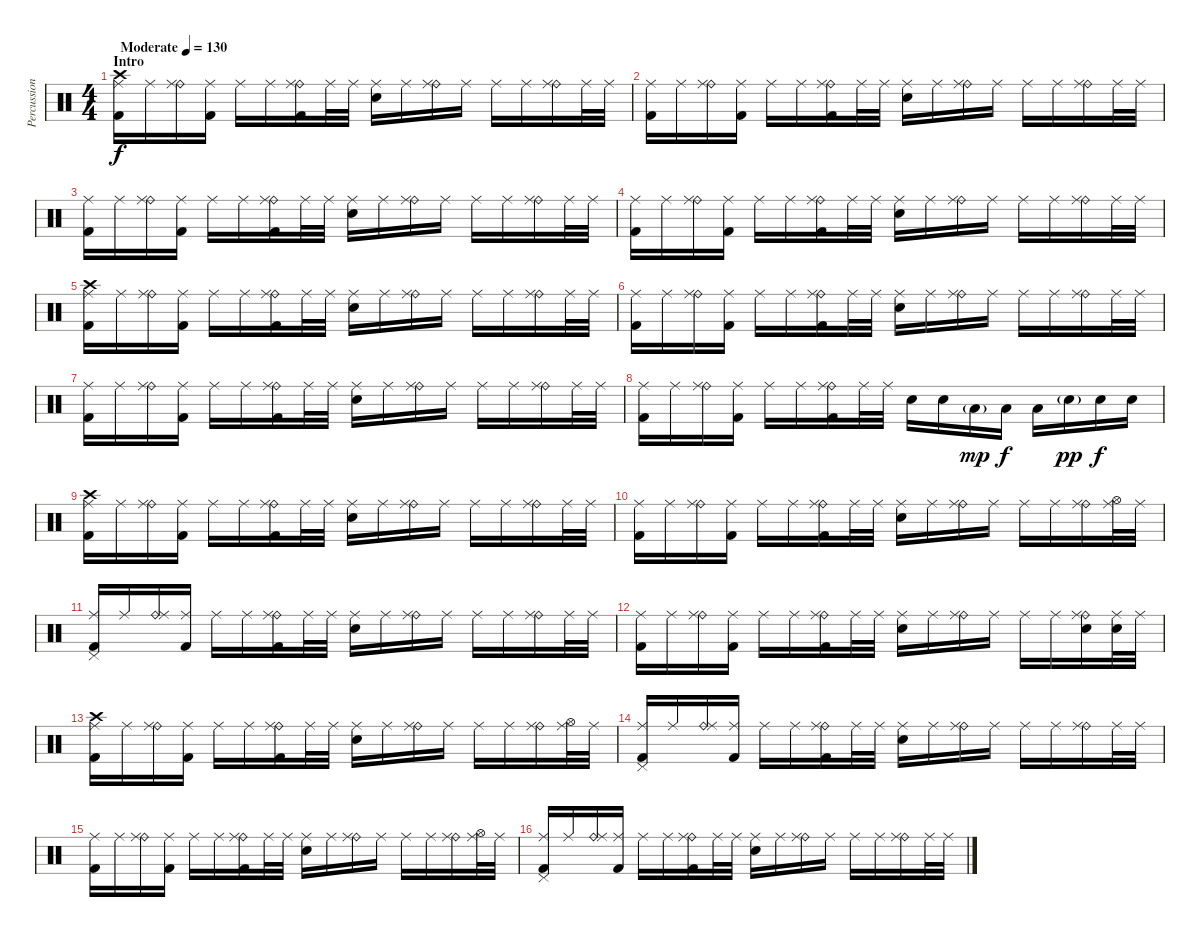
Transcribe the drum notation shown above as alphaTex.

\track ("Percussions" "Percussion") {instrument percussion}
\staff {score}
\articulation defaults
\ts (4 4)
\section ("" "Intro")
\tempo (130 "Moderate")
\clef neutral
\ks c
("Crash high (hit)" "Ride (middle)" "Kick (hit) 2").16{dy f} "Ride (middle)".16 ("Ride (bell)" "Ride (middle)").16 ("Ride (middle)" "Kick (hit) 2").16 "Ride (middle)".16 "Ride (middle)".16 ("Ride (bell)" "Ride (middle)" "Kick (hit) 2").16 "Ride (middle)".32 "Ride (middle)".32 ("Ride (middle)" "Electric Snare (hit)").16 "Ride (middle)".16 ("Ride (bell)" "Ride (middle)").16 "Ride (middle)".16 "Ride (middle)".16 "Ride (middle)".16 ("Ride (bell)" "Ride (middle)").16 "Ride (middle)".32 "Ride (middle)".32 |
("Ride (middle)" "Kick (hit) 2").16 "Ride (middle)".16 ("Ride (bell)" "Ride (middle)").16 ("Ride (middle)" "Kick (hit) 2").16 "Ride (middle)".16 "Ride (middle)".16 ("Ride (bell)" "Ride (middle)" "Kick (hit) 2").16 "Ride (middle)".32 "Ride (middle)".32 ("Ride (middle)" "Electric Snare (hit)").16 "Ride (middle)".16 ("Ride (bell)" "Ride (middle)").16 "Ride (middle)".16 "Ride (middle)".16 "Ride (middle)".16 ("Ride (bell)" "Ride (middle)").16 "Ride (middle)".32 "Ride (middle)".32 |
("Ride (middle)" "Kick (hit) 2").16 "Ride (middle)".16 ("Ride (bell)" "Ride (middle)").16 ("Ride (middle)" "Kick (hit) 2").16 "Ride (middle)".16 "Ride (middle)".16 ("Ride (bell)" "Ride (middle)" "Kick (hit) 2").16 "Ride (middle)".32 "Ride (middle)".32 ("Ride (middle)" "Electric Snare (hit)").16 "Ride (middle)".16 ("Ride (bell)" "Ride (middle)").16 "Ride (middle)".16 "Ride (middle)".16 "Ride (middle)".16 ("Ride (bell)" "Ride (middle)").16 "Ride (middle)".32 "Ride (middle)".32 |
("Ride (middle)" "Kick (hit) 2").16 "Ride (middle)".16 ("Ride (bell)" "Ride (middle)").16 ("Ride (middle)" "Kick (hit) 2").16 "Ride (middle)".16 "Ride (middle)".16 ("Ride (bell)" "Ride (middle)" "Kick (hit) 2").16 "Ride (middle)".32 "Ride (middle)".32 ("Ride (middle)" "Electric Snare (hit)").16 "Ride (middle)".16 ("Ride (bell)" "Ride (middle)").16 "Ride (middle)".16 "Ride (middle)".16 "Ride (middle)".16 ("Ride (bell)" "Ride (middle)").16 "Ride (middle)".32 "Ride (middle)".32 |
("Crash high (hit)" "Ride (middle)" "Kick (hit) 2").16 "Ride (middle)".16 ("Ride (bell)" "Ride (middle)").16 ("Ride (middle)" "Kick (hit) 2").16 "Ride (middle)".16 "Ride (middle)".16 ("Ride (bell)" "Ride (middle)" "Kick (hit) 2").16 "Ride (middle)".32 "Ride (middle)".32 ("Ride (middle)" "Electric Snare (hit)").16 "Ride (middle)".16 ("Ride (bell)" "Ride (middle)").16 "Ride (middle)".16 "Ride (middle)".16 "Ride (middle)".16 ("Ride (bell)" "Ride (middle)").16 "Ride (middle)".32 "Ride (middle)".32 |
("Ride (middle)" "Kick (hit) 2").16 "Ride (middle)".16 ("Ride (bell)" "Ride (middle)").16 ("Ride (middle)" "Kick (hit) 2").16 "Ride (middle)".16 "Ride (middle)".16 ("Ride (bell)" "Ride (middle)" "Kick (hit) 2").16 "Ride (middle)".32 "Ride (middle)".32 ("Ride (middle)" "Electric Snare (hit)").16 "Ride (middle)".16 ("Ride (bell)" "Ride (middle)").16 "Ride (middle)".16 "Ride (middle)".16 "Ride (middle)".16 ("Ride (bell)" "Ride (middle)").16 "Ride (middle)".32 "Ride (middle)".32 |
("Ride (middle)" "Kick (hit) 2").16 "Ride (middle)".16 ("Ride (bell)" "Ride (middle)").16 ("Ride (middle)" "Kick (hit) 2").16 "Ride (middle)".16 "Ride (middle)".16 ("Ride (bell)" "Ride (middle)" "Kick (hit) 2").16 "Ride (middle)".32 "Ride (middle)".32 ("Ride (middle)" "Electric Snare (hit)").16 "Ride (middle)".16 ("Ride (bell)" "Ride (middle)").16 "Ride (middle)".16 "Ride (middle)".16 "Ride (middle)".16 ("Ride (bell)" "Ride (middle)").16 "Ride (middle)".32 "Ride (middle)".32 |
("Ride (middle)" "Kick (hit) 2").16 "Ride (middle)".16 ("Ride (bell)" "Ride (middle)").16 ("Ride (middle)" "Kick (hit) 2").16 "Ride (middle)".16 "Ride (middle)".16 ("Ride (bell)" "Ride (middle)" "Kick (hit) 2").16 "Ride (middle)".32 "Ride (middle)".32 "Electric Snare (hit)".16 "Electric Snare (hit)".16 "Low Tom (hit)"{g}.16{dy mp} "Low Tom (hit)".16{dy f} "Low Tom (hit)".16 "Electric Snare (hit)"{g}.16{dy pp} "Electric Snare (hit)".16{dy f} "Electric Snare (hit)".16 |
("Crash high (hit)" "Ride (middle)" "Kick (hit) 2").16 "Ride (middle)".16 ("Ride (bell)" "Ride (middle)").16 ("Ride (middle)" "Kick (hit) 2").16 "Ride (middle)".16 "Ride (middle)".16 ("Ride (bell)" "Ride (middle)" "Kick (hit) 2").16 "Ride (middle)".32 "Ride (middle)".32 ("Ride (middle)" "Electric Snare (hit)").16 "Ride (middle)".16 ("Ride (bell)" "Ride (middle)").16 "Ride (middle)".16 "Ride (middle)".16 "Ride (middle)".16 ("Ride (bell)" "Ride (middle)").16 "Ride (middle)".32 "Ride (middle)".32 |
("Ride (middle)" "Kick (hit) 2").16 "Ride (middle)".16 ("Ride (bell)" "Ride (middle)").16 ("Ride (middle)" "Kick (hit) 2").16 "Ride (middle)".16 "Ride (middle)".16 ("Ride (bell)" "Ride (middle)" "Kick (hit) 2").16 "Ride (middle)".32 "Ride (middle)".32 ("Ride (middle)" "Electric Snare (hit)").16 "Ride (middle)".16 ("Ride (bell)" "Ride (middle)").16 "Ride (middle)".16 "Ride (middle)".16 "Ride (middle)".16 ("Ride (bell)" "Ride (middle)").16 ("Hi-Hat (open)" "Ride (middle)").32 "Ride (middle)".32 |
("Pedal Hi-Hat (hit)" "Ride (middle)" "Kick (hit) 2").16 "Ride (middle)".16 ("Ride (bell)" "Ride (middle)").16 ("Ride (middle)" "Kick (hit) 2").16 "Ride (middle)".16 "Ride (middle)".16 ("Ride (bell)" "Ride (middle)" "Kick (hit) 2").16 "Ride (middle)".32 "Ride (middle)".32 ("Ride (middle)" "Electric Snare (hit)").16 "Ride (middle)".16 ("Ride (bell)" "Ride (middle)").16 "Ride (middle)".16 "Ride (middle)".16 "Ride (middle)".16 ("Ride (bell)" "Ride (middle)").16 "Ride (middle)".32 "Ride (middle)".32 |
("Ride (middle)" "Kick (hit) 2").16 "Ride (middle)".16 ("Ride (bell)" "Ride (middle)").16 ("Ride (middle)" "Kick (hit) 2").16 "Ride (middle)".16 "Ride (middle)".16 ("Ride (bell)" "Ride (middle)" "Kick (hit) 2").16 "Ride (middle)".32 "Ride (middle)".32 ("Ride (middle)" "Electric Snare (hit)").16 "Ride (middle)".16 ("Ride (bell)" "Ride (middle)").16 "Ride (middle)".16 "Ride (middle)".16 "Ride (middle)".16 ("Ride (bell)" "Ride (middle)" "Electric Snare (hit)").16 ("Ride (middle)" "Electric Snare (hit)").32 "Ride (middle)".32 |
("Crash high (hit)" "Ride (middle)" "Kick (hit) 2").16 "Ride (middle)".16 ("Ride (bell)" "Ride (middle)").16 ("Ride (middle)" "Kick (hit) 2").16 "Ride (middle)".16 "Ride (middle)".16 ("Ride (bell)" "Ride (middle)" "Kick (hit) 2").16 "Ride (middle)".32 "Ride (middle)".32 ("Ride (middle)" "Electric Snare (hit)").16 "Ride (middle)".16 ("Ride (bell)" "Ride (middle)").16 "Ride (middle)".16 "Ride (middle)".16 "Ride (middle)".16 ("Ride (bell)" "Ride (middle)").16 ("Hi-Hat (open)" "Ride (middle)").32 "Ride (middle)".32 |
("Pedal Hi-Hat (hit)" "Ride (middle)" "Kick (hit) 2").16 "Ride (middle)".16 ("Ride (bell)" "Ride (middle)").16 ("Ride (middle)" "Kick (hit) 2").16 "Ride (middle)".16 "Ride (middle)".16 ("Ride (bell)" "Ride (middle)" "Kick (hit) 2").16 "Ride (middle)".32 "Ride (middle)".32 ("Ride (middle)" "Electric Snare (hit)").16 "Ride (middle)".16 ("Ride (bell)" "Ride (middle)").16 "Ride (middle)".16 "Ride (middle)".16 "Ride (middle)".16 ("Ride (bell)" "Ride (middle)").16 "Ride (middle)".32 "Ride (middle)".32 |
("Ride (middle)" "Kick (hit) 2").16 "Ride (middle)".16 ("Ride (bell)" "Ride (middle)").16 ("Ride (middle)" "Kick (hit) 2").16 "Ride (middle)".16 "Ride (middle)".16 ("Ride (bell)" "Ride (middle)" "Kick (hit) 2").16 "Ride (middle)".32 "Ride (middle)".32 ("Ride (middle)" "Electric Snare (hit)").16 "Ride (middle)".16 ("Ride (bell)" "Ride (middle)").16 "Ride (middle)".16 "Ride (middle)".16 "Ride (middle)".16 ("Ride (bell)" "Ride (middle)").16 ("Hi-Hat (open)" "Ride (middle)").32 "Ride (middle)".32 |
("Pedal Hi-Hat (hit)" "Ride (middle)" "Kick (hit) 2").16 "Ride (middle)".16 ("Ride (bell)" "Ride (middle)").16 ("Ride (middle)" "Kick (hit) 2").16 "Ride (middle)".16 "Ride (middle)".16 ("Ride (bell)" "Ride (middle)" "Kick (hit) 2").16 "Ride (middle)".32 "Ride (middle)".32 ("Ride (middle)" "Electric Snare (hit)").16 "Ride (middle)".16 ("Ride (bell)" "Ride (middle)").16 "Ride (middle)".16 "Ride (middle)".16 "Ride (middle)".16 ("Ride (bell)" "Ride (middle)").16 "Ride (middle)".32 "Ride (middle)".32
